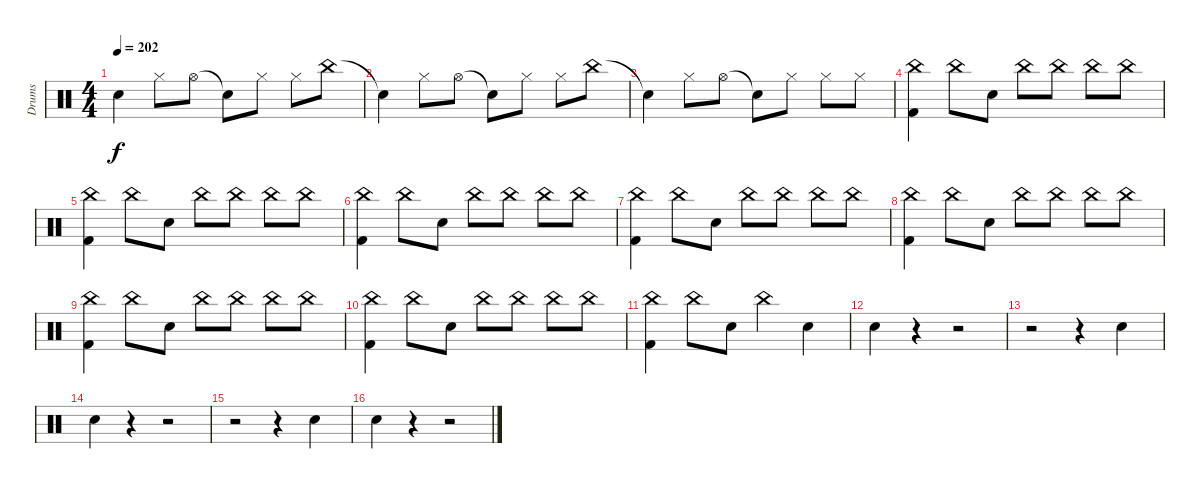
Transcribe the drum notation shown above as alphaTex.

\track ("Drums" "Drums") {instrument percussion}
\staff {score}
\articulation defaults
\ts (4 4)
\tempo 202
\clef neutral
\ks c "Snare (hit)"{t}.4{dy f} "Hi-Hat (closed)".8 "Hi-Hat (open)".8 "Snare (hit)"{t}.8 "Hi-Hat (closed)".8 "Hi-Hat (closed)".8 "China (hit)".8
|
"Snare (hit)"{t}.4 "Hi-Hat (closed)".8 "Hi-Hat (open)".8 "Snare (hit)"{t}.8 "Hi-Hat (closed)".8 "Hi-Hat (closed)".8 "China (hit)".8 |
"Snare (hit)"{t}.4 "Hi-Hat (closed)".8 "Hi-Hat (open)".8 "Snare (hit)"{t}.8 "Hi-Hat (closed)".8 "Hi-Hat (closed)".8 "Hi-Hat (closed)".8 |
("China (hit)" "Kick (hit) 2").4 "China (hit)".8 "Snare (hit) 2".8 "China (hit)".8 "China (hit)".8 "China (hit)".8 "China (hit)".8 |
("China (hit)" "Kick (hit) 2").4 "China (hit)".8 "Snare (hit) 2".8 "China (hit)".8 "China (hit)".8 "China (hit)".8 "China (hit)".8 |
("China (hit)" "Kick (hit) 2").4 "China (hit)".8 "Snare (hit) 2".8 "China (hit)".8 "China (hit)".8 "China (hit)".8 "China (hit)".8 |
("China (hit)" "Kick (hit) 2").4 "China (hit)".8 "Snare (hit) 2".8 "China (hit)".8 "China (hit)".8 "China (hit)".8 "China (hit)".8 |
("China (hit)" "Kick (hit) 2").4 "China (hit)".8 "Snare (hit) 2".8 "China (hit)".8 "China (hit)".8 "China (hit)".8 "China (hit)".8 |
("China (hit)" "Kick (hit) 2").4 "China (hit)".8 "Snare (hit) 2".8 "China (hit)".8 "China (hit)".8 "China (hit)".8 "China (hit)".8 |
("China (hit)" "Kick (hit) 2").4 "China (hit)".8 "Snare (hit) 2".8 "China (hit)".8 "China (hit)".8 "China (hit)".8 "China (hit)".8 |
("China (hit)" "Kick (hit) 2").4 "China (hit)".8 "Snare (hit) 2".8 "China (hit)".4 "Snare (hit) 2".4 |
"Snare (hit) 2".4 r.4 r.2 |
r.2 r.4 "Snare (hit) 2".4 |
"Snare (hit) 2".4 r.4 r.2 |
r.2 r.4 "Snare (hit) 2".4 |
"Snare (hit) 2".4 r.4 r.2
